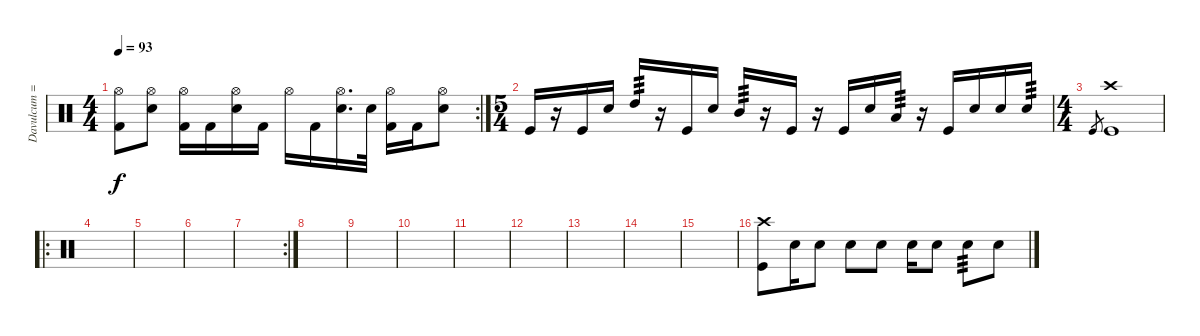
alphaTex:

\track ("Davulcum =)" "Davulcum =") {instrument percussion}
\staff {score}
\articulation defaults
\rc 2
\ts (4 4)
\tempo 93
\clef neutral
\ks c
("Kick (hit) 2" "Hi-Hat (open)").8{dy f} ("Electric Snare (hit)" "Hi-Hat (open)").8 ("Kick (hit) 2" "Hi-Hat (open)").16 "Kick (hit) 2".16 ("Electric Snare (hit)" "Hi-Hat (open)").16 "Kick (hit) 2".16 "Hi-Hat (open)".16 "Kick (hit) 2".16 ("Electric Snare (hit)" "Hi-Hat (open)").16{d} "Electric Snare (hit)".32 ("Kick (hit) 2" "Hi-Hat (open)").16 "Kick (hit) 2".16 ("Electric Snare (hit)" "Hi-Hat (open)").8 |
\ts (5 4)
"Kick (hit)".16 r.16 "Kick (hit)".16 "Snare (hit) 2".16 "High Tom (hit)".16{tp 3} r.16 "Kick (hit)".16 "Snare (hit) 2".16 "Mid Tom (hit)".16{tp 3} r.16 "Kick (hit)".16 r.16 "Kick (hit)".16 "Snare (hit) 2".16 "Low Tom (hit)".16{tp 3} r.16 "Kick (hit)".16 "Snare (hit) 2".16 "Snare (hit) 2".16 "Snare (hit) 2".16{tp 3} |
\ts (4 4)
"Kick (hit)".8{gr} ("Crash high (hit)" "Kick (hit)").1 |
\ro
|
|
|
\rc 2
|
|
|
|
|
|
|
|
|
("Crash high (hit)" "Kick (hit)").8 "Snare (hit) 2".16 "Snare (hit) 2".8 "Snare (hit) 2".8 "Snare (hit) 2".8 "Snare (hit) 2".16 "Snare (hit) 2".8 "Snare (hit) 2".8{tp 3} "Snare (hit) 2".8
